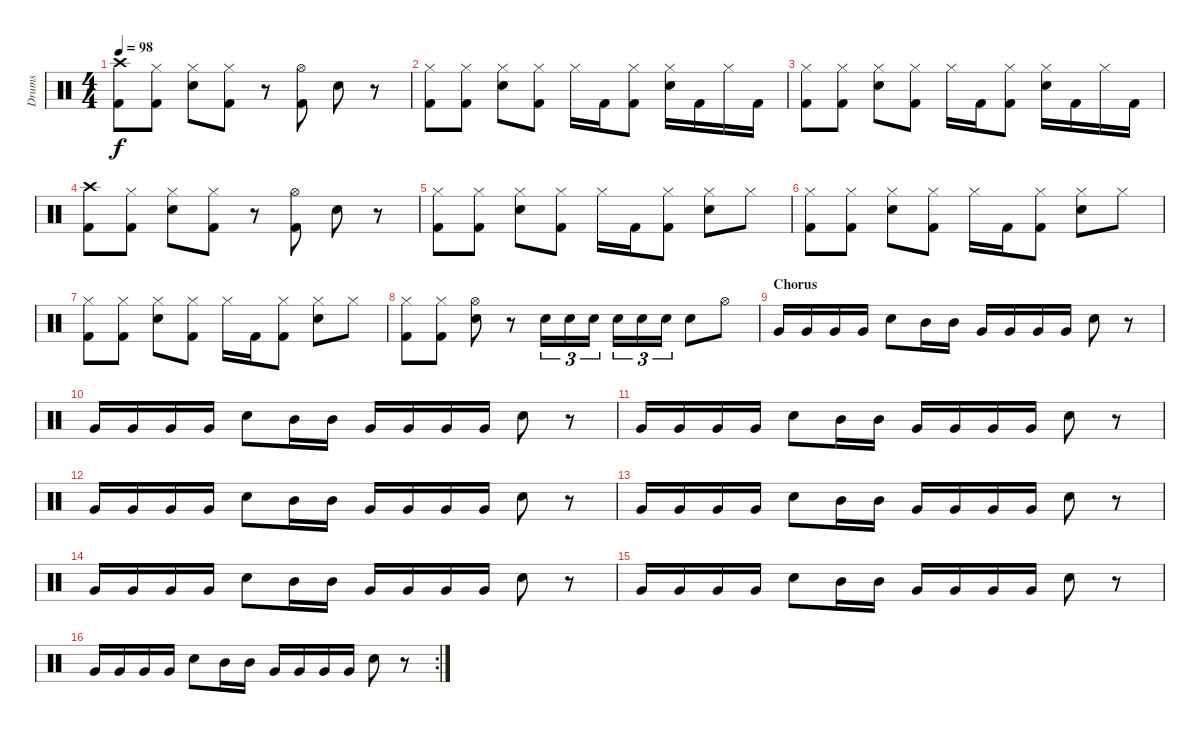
\track ("Drums" "Drums") {instrument percussion}
\staff {score}
\articulation defaults
\ts (4 4)
\tempo 98
\clef neutral
\ks c
("Crash high (hit)" "Kick (hit) 2").8{dy f} ("Hi-Hat (closed)" "Kick (hit) 2").8 ("Hi-Hat (closed)" "Electric Snare (hit)").8 ("Hi-Hat (closed)" "Kick (hit) 2").8 r.8 ("Hi-Hat (open)" "Kick (hit) 2").8 "Electric Snare (hit)".8 r.8 |
("Hi-Hat (closed)" "Kick (hit) 2").8 ("Hi-Hat (closed)" "Kick (hit) 2").8 ("Hi-Hat (closed)" "Electric Snare (hit)").8 ("Hi-Hat (closed)" "Kick (hit) 2").8 "Hi-Hat (closed)".16 "Kick (hit) 2".16 ("Hi-Hat (closed)" "Kick (hit) 2").8 ("Hi-Hat (closed)" "Electric Snare (hit)").16 "Kick (hit) 2".16 "Hi-Hat (closed)".16 "Kick (hit) 2".16 |
("Hi-Hat (closed)" "Kick (hit) 2").8 ("Hi-Hat (closed)" "Kick (hit) 2").8 ("Hi-Hat (closed)" "Electric Snare (hit)").8 ("Hi-Hat (closed)" "Kick (hit) 2").8 "Hi-Hat (closed)".16 "Kick (hit) 2".16 ("Hi-Hat (closed)" "Kick (hit) 2").8 ("Hi-Hat (closed)" "Electric Snare (hit)").16 "Kick (hit) 2".16 "Hi-Hat (closed)".16 "Kick (hit) 2".16 |
("Crash high (hit)" "Kick (hit) 2").8 ("Hi-Hat (closed)" "Kick (hit) 2").8 ("Hi-Hat (closed)" "Electric Snare (hit)").8 ("Hi-Hat (closed)" "Kick (hit) 2").8 r.8 ("Hi-Hat (open)" "Kick (hit) 2").8 "Electric Snare (hit)".8 r.8 |
("Hi-Hat (closed)" "Kick (hit) 2").8 ("Hi-Hat (closed)" "Kick (hit) 2").8 ("Hi-Hat (closed)" "Electric Snare (hit)").8 ("Hi-Hat (closed)" "Kick (hit) 2").8 "Hi-Hat (closed)".16 "Kick (hit) 2".16 ("Hi-Hat (closed)" "Kick (hit) 2").8 ("Hi-Hat (closed)" "Electric Snare (hit)").8 "Hi-Hat (closed)".8 |
("Hi-Hat (closed)" "Kick (hit) 2").8 ("Hi-Hat (closed)" "Kick (hit) 2").8 ("Hi-Hat (closed)" "Electric Snare (hit)").8 ("Hi-Hat (closed)" "Kick (hit) 2").8 "Hi-Hat (closed)".16 "Kick (hit) 2".16 ("Hi-Hat (closed)" "Kick (hit) 2").8 ("Hi-Hat (closed)" "Electric Snare (hit)").8 "Hi-Hat (closed)".8 |
("Hi-Hat (closed)" "Kick (hit) 2").8 ("Hi-Hat (closed)" "Kick (hit) 2").8 ("Hi-Hat (closed)" "Electric Snare (hit)").8 ("Hi-Hat (closed)" "Kick (hit) 2").8 "Hi-Hat (closed)".16 "Kick (hit) 2".16 ("Hi-Hat (closed)" "Kick (hit) 2").8 ("Hi-Hat (closed)" "Electric Snare (hit)").8 "Hi-Hat (closed)".8 |
("Hi-Hat (closed)" "Kick (hit) 2").8 ("Hi-Hat (closed)" "Kick (hit) 2").8 ("Hi-Hat (open)" "Electric Snare (hit)").8 r.8 "Electric Snare (hit)".16{tu (3 2)} "Electric Snare (hit)".16{tu (3 2)} "Electric Snare (hit)".16{tu (3 2)} "Electric Snare (hit)".16{tu (3 2)} "Electric Snare (hit)".16{tu (3 2)} "Electric Snare (hit)".16{tu (3 2)} "Electric Snare (hit)".8 "Hi-Hat (open)".8 |
\section ("" "Chorus")
"Very Low Tom (hit)".16 "Very Low Tom (hit)".16 "Very Low Tom (hit)".16 "Very Low Tom (hit)".16 "Electric Snare (hit)".8 "Mid Tom (hit)".16 "Mid Tom (hit)".16 "Very Low Tom (hit)".16 "Very Low Tom (hit)".16 "Very Low Tom (hit)".16 "Very Low Tom (hit)".16 "Electric Snare (hit)".8 r.8 |
"Very Low Tom (hit)".16 "Very Low Tom (hit)".16 "Very Low Tom (hit)".16 "Very Low Tom (hit)".16 "Electric Snare (hit)".8 "Mid Tom (hit)".16 "Mid Tom (hit)".16 "Very Low Tom (hit)".16 "Very Low Tom (hit)".16 "Very Low Tom (hit)".16 "Very Low Tom (hit)".16 "Electric Snare (hit)".8 r.8 |
"Very Low Tom (hit)".16 "Very Low Tom (hit)".16 "Very Low Tom (hit)".16 "Very Low Tom (hit)".16 "Electric Snare (hit)".8 "Mid Tom (hit)".16 "Mid Tom (hit)".16 "Very Low Tom (hit)".16 "Very Low Tom (hit)".16 "Very Low Tom (hit)".16 "Very Low Tom (hit)".16 "Electric Snare (hit)".8 r.8 |
"Very Low Tom (hit)".16 "Very Low Tom (hit)".16 "Very Low Tom (hit)".16 "Very Low Tom (hit)".16 "Electric Snare (hit)".8 "Mid Tom (hit)".16 "Mid Tom (hit)".16 "Very Low Tom (hit)".16 "Very Low Tom (hit)".16 "Very Low Tom (hit)".16 "Very Low Tom (hit)".16 "Electric Snare (hit)".8 r.8 |
"Very Low Tom (hit)".16 "Very Low Tom (hit)".16 "Very Low Tom (hit)".16 "Very Low Tom (hit)".16 "Electric Snare (hit)".8 "Mid Tom (hit)".16 "Mid Tom (hit)".16 "Very Low Tom (hit)".16 "Very Low Tom (hit)".16 "Very Low Tom (hit)".16 "Very Low Tom (hit)".16 "Electric Snare (hit)".8 r.8 |
"Very Low Tom (hit)".16 "Very Low Tom (hit)".16 "Very Low Tom (hit)".16 "Very Low Tom (hit)".16 "Electric Snare (hit)".8 "Mid Tom (hit)".16 "Mid Tom (hit)".16 "Very Low Tom (hit)".16 "Very Low Tom (hit)".16 "Very Low Tom (hit)".16 "Very Low Tom (hit)".16 "Electric Snare (hit)".8 r.8 |
"Very Low Tom (hit)".16 "Very Low Tom (hit)".16 "Very Low Tom (hit)".16 "Very Low Tom (hit)".16 "Electric Snare (hit)".8 "Mid Tom (hit)".16 "Mid Tom (hit)".16 "Very Low Tom (hit)".16 "Very Low Tom (hit)".16 "Very Low Tom (hit)".16 "Very Low Tom (hit)".16 "Electric Snare (hit)".8 r.8 |
\rc 2 "Very Low Tom (hit)".16 "Very Low Tom (hit)".16 "Very Low Tom (hit)".16 "Very Low Tom (hit)".16 "Electric Snare (hit)".8 "Mid Tom (hit)".16 "Mid Tom (hit)".16 "Very Low Tom (hit)".16 "Very Low Tom (hit)".16 "Very Low Tom (hit)".16 "Very Low Tom (hit)".16 "Electric Snare (hit)".8
r.8
